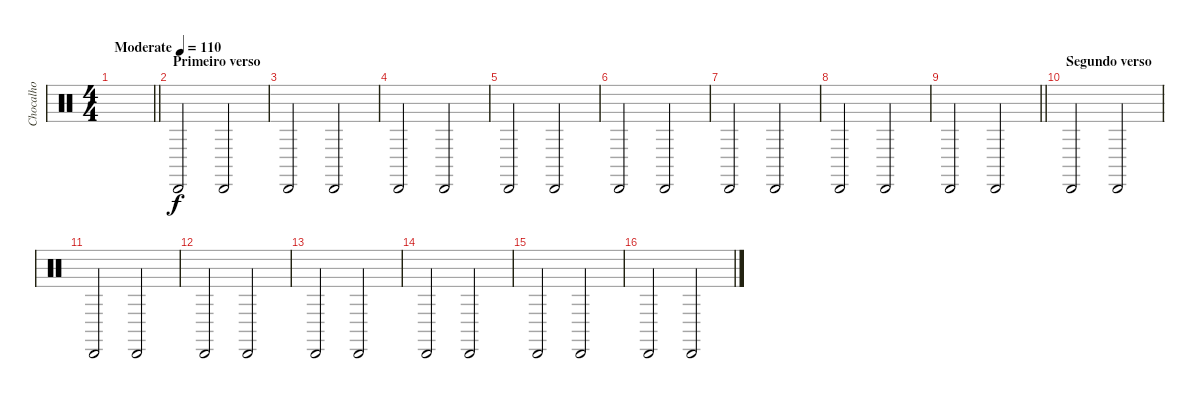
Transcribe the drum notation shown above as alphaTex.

\track ("Chocalho" "Chocalho") {instrument percussion}
\staff {score}
\articulation defaults
\ts (4 4)
\tempo (110 "Moderate")
\clef neutral
\barLineRight lightlight
\ks c
|
\section ("" "Primeiro verso")
"Cabasa (hit)".2 "Cabasa (hit)".2 |
"Cabasa (hit)".2 "Cabasa (hit)".2 |
"Cabasa (hit)".2 "Cabasa (hit)".2 |
"Cabasa (hit)".2 "Cabasa (hit)".2 |
"Cabasa (hit)".2 "Cabasa (hit)".2 |
"Cabasa (hit)".2 "Cabasa (hit)".2 |
"Cabasa (hit)".2 "Cabasa (hit)".2 |
\barLineRight lightlight "Cabasa (hit)".2 "Cabasa (hit)".2
|
\section ("" "Segundo verso")
"Cabasa (hit)".2 "Cabasa (hit)".2 |
"Cabasa (hit)".2 "Cabasa (hit)".2 |
"Cabasa (hit)".2 "Cabasa (hit)".2 |
"Cabasa (hit)".2 "Cabasa (hit)".2 |
"Cabasa (hit)".2 "Cabasa (hit)".2 |
"Cabasa (hit)".2 "Cabasa (hit)".2 |
"Cabasa (hit)".2 "Cabasa (hit)".2
